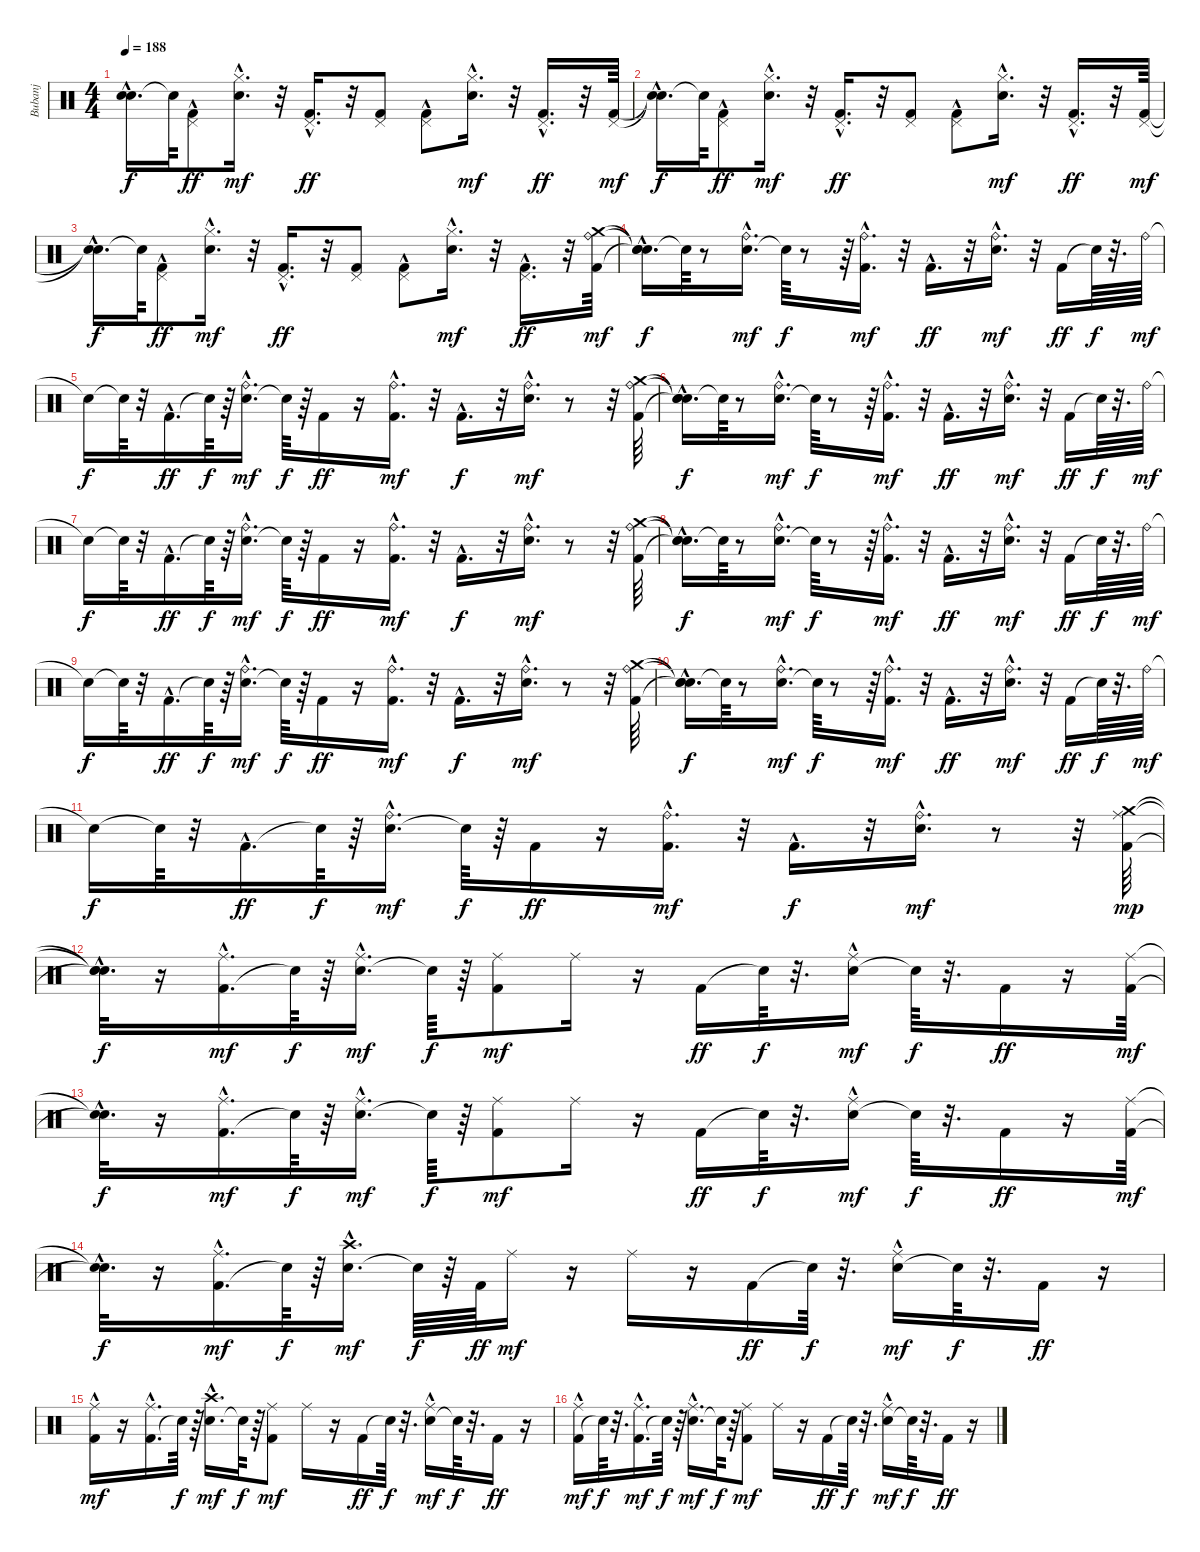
\track ("Bubanj" "Bubanj") {instrument percussion}
\staff {score}
\articulation defaults
\ts (4 4)
\tempo 188
\clef neutral
\ks c
("Snare (hit)"{hac t} "Snare (hit)"{hac t}).16{d dy f} "Snare (hit)"{t}.64 ("Pedal Hi-Hat (hit)"{hac} "Kick (hit) 2").8{dy ff} ("Electric Snare (hit)"{hac} "Hi-Hat (closed)").16{d dy mf} r.32 ("Pedal Hi-Hat (hit)"{hac} "Kick (hit) 2"{hac}).16{d dy ff} r.32 ("Pedal Hi-Hat (hit)" "Kick (hit) 2").8 ("Pedal Hi-Hat (hit)"{hac} "Kick (hit) 2").8 ("Electric Snare (hit)"{hac} "Hi-Hat (closed)").16{d dy mf} r.32 ("Pedal Hi-Hat (hit)" "Kick (hit) 2"{hac}).16{d dy ff} r.32 ("Kick (hit) 2" "Pedal Hi-Hat (hit)").64{dy mf} |
("Snare (hit)"{hac t} "Snare (hit)"{hac t}).16{d dy f} "Snare (hit)"{t}.64 ("Pedal Hi-Hat (hit)"{hac} "Kick (hit) 2").8{dy ff} ("Electric Snare (hit)"{hac} "Hi-Hat (closed)").16{d dy mf} r.32 ("Pedal Hi-Hat (hit)"{hac} "Kick (hit) 2"{hac}).16{d dy ff} r.32 ("Pedal Hi-Hat (hit)" "Kick (hit) 2").8 ("Pedal Hi-Hat (hit)"{hac} "Kick (hit) 2").8 ("Electric Snare (hit)"{hac} "Hi-Hat (closed)").16{d dy mf} r.32 ("Pedal Hi-Hat (hit)" "Kick (hit) 2"{hac}).16{d dy ff} r.32 ("Kick (hit) 2" "Pedal Hi-Hat (hit)").64{dy mf} |
("Snare (hit)"{hac t} "Snare (hit)"{hac t}).16{d dy f} "Snare (hit)"{t}.64 ("Pedal Hi-Hat (hit)"{hac} "Kick (hit) 2").8{dy ff} ("Electric Snare (hit)"{hac} "Hi-Hat (closed)").16{d dy mf} r.32 ("Pedal Hi-Hat (hit)"{hac} "Kick (hit) 2"{hac}).16{d dy ff} r.32 ("Pedal Hi-Hat (hit)" "Kick (hit) 2").8 ("Pedal Hi-Hat (hit)"{hac} "Kick (hit) 2").8 ("Electric Snare (hit)"{hac} "Hi-Hat (closed)").16{d dy mf} r.32 ("Pedal Hi-Hat (hit)" "Kick (hit) 2"{hac}).16{d dy ff} r.32 ("Kick (hit) 2" "Ride (bell)" "Crash medium (hit)").64{dy mf} |
("Snare (hit)"{hac t} "Snare (hit)"{t} "Snare (hit)"{t}).16{d dy f} "Snare (hit)"{t}.64 r.8 ("Electric Snare (hit)"{hac} "Ride (bell)"{hac}).16{d dy mf} "Snare (hit)"{t}.64{dy f} r.8 r.64 ("Kick (hit) 2" "Ride (bell)"{hac}).16{d dy mf} r.32 "Kick (hit) 2"{hac}.16{d dy ff} r.32 ("Electric Snare (hit)" "Ride (bell)"{hac}).16{d dy mf} r.32 "Kick (hit) 2".16{dy ff} "Snare (hit)"{t}.64{dy f} r.32{d} "Ride (bell)".64{dy mf} |
"Snare (hit)"{t}.16{dy f} "Snare (hit)"{t}.64 r.32 "Kick (hit) 2"{hac}.16{d dy ff} "Snare (hit)"{t}.64{dy f} r.64 ("Electric Snare (hit)"{hac} "Ride (bell)"{hac}).16{d dy mf} "Snare (hit)"{t}.64{dy f} r.64 "Kick (hit) 2".16{dy ff} r.16 ("Kick (hit) 2" "Ride (bell)"{hac}).16{d dy mf} r.32 "Kick (hit) 2"{hac}.16{d dy f} r.32 ("Electric Snare (hit)" "Ride (bell)"{hac}).16{d dy mf} r.8 r.32 ("Kick (hit) 2" "Ride (bell)" "Crash medium (hit)").64 |
("Snare (hit)"{hac t} "Snare (hit)"{t} "Snare (hit)"{t}).16{d dy f} "Snare (hit)"{t}.64 r.8 ("Electric Snare (hit)"{hac} "Ride (bell)"{hac}).16{d dy mf} "Snare (hit)"{t}.64{dy f} r.8 r.64 ("Kick (hit) 2" "Ride (bell)"{hac}).16{d dy mf} r.32 "Kick (hit) 2"{hac}.16{d dy ff} r.32 ("Electric Snare (hit)" "Ride (bell)"{hac}).16{d dy mf} r.32 "Kick (hit) 2".16{dy ff} "Snare (hit)"{t}.64{dy f} r.32{d} "Ride (bell)".64{dy mf} |
"Snare (hit)"{t}.16{dy f} "Snare (hit)"{t}.64 r.32 "Kick (hit) 2"{hac}.16{d dy ff} "Snare (hit)"{t}.64{dy f} r.64 ("Electric Snare (hit)"{hac} "Ride (bell)"{hac}).16{d dy mf} "Snare (hit)"{t}.64{dy f} r.64 "Kick (hit) 2".16{dy ff} r.16 ("Kick (hit) 2" "Ride (bell)"{hac}).16{d dy mf} r.32 "Kick (hit) 2"{hac}.16{d dy f} r.32 ("Electric Snare (hit)" "Ride (bell)"{hac}).16{d dy mf} r.8 r.32 ("Kick (hit) 2" "Ride (bell)" "Crash medium (hit)").64 |
("Snare (hit)"{hac t} "Snare (hit)"{t} "Snare (hit)"{t}).16{d dy f} "Snare (hit)"{t}.64 r.8 ("Electric Snare (hit)"{hac} "Ride (bell)"{hac}).16{d dy mf} "Snare (hit)"{t}.64{dy f} r.8 r.64 ("Kick (hit) 2" "Ride (bell)"{hac}).16{d dy mf} r.32 "Kick (hit) 2"{hac}.16{d dy ff} r.32 ("Electric Snare (hit)" "Ride (bell)"{hac}).16{d dy mf} r.32 "Kick (hit) 2".16{dy ff} "Snare (hit)"{t}.64{dy f} r.32{d} "Ride (bell)".64{dy mf} |
"Snare (hit)"{t}.16{dy f} "Snare (hit)"{t}.64 r.32 "Kick (hit) 2"{hac}.16{d dy ff} "Snare (hit)"{t}.64{dy f} r.64 ("Electric Snare (hit)"{hac} "Ride (bell)"{hac}).16{d dy mf} "Snare (hit)"{t}.64{dy f} r.64 "Kick (hit) 2".16{dy ff} r.16 ("Kick (hit) 2" "Ride (bell)"{hac}).16{d dy mf} r.32 "Kick (hit) 2"{hac}.16{d dy f} r.32 ("Electric Snare (hit)" "Ride (bell)"{hac}).16{d dy mf} r.8 r.32 ("Kick (hit) 2" "Ride (bell)" "Crash medium (hit)").64 |
("Snare (hit)"{hac t} "Snare (hit)"{t} "Snare (hit)"{t}).16{d dy f} "Snare (hit)"{t}.64 r.8 ("Electric Snare (hit)"{hac} "Ride (bell)"{hac}).16{d dy mf} "Snare (hit)"{t}.64{dy f} r.8 r.64 ("Kick (hit) 2" "Ride (bell)"{hac}).16{d dy mf} r.32 "Kick (hit) 2"{hac}.16{d dy ff} r.32 ("Electric Snare (hit)" "Ride (bell)"{hac}).16{d dy mf} r.32 "Kick (hit) 2".16{dy ff} "Snare (hit)"{t}.64{dy f} r.32{d} "Ride (bell)".64{dy mf} |
"Snare (hit)"{t}.16{dy f} "Snare (hit)"{t}.64 r.32 "Kick (hit) 2"{hac}.16{d dy ff} "Snare (hit)"{t}.64{dy f} r.64 ("Electric Snare (hit)"{hac} "Ride (bell)"{hac}).16{d dy mf} "Snare (hit)"{t}.64{dy f} r.64 "Kick (hit) 2".16{dy ff} r.16 ("Kick (hit) 2" "Ride (bell)"{hac}).16{d dy mf} r.32 "Kick (hit) 2"{hac}.16{d dy f} r.32 ("Electric Snare (hit)" "Ride (bell)"{hac}).16{d dy mf} r.8 r.32 ("Kick (hit) 2" "Ride (middle)" "Crash medium (hit)").64{dy mp} |
("Snare (hit)"{hac t} "Snare (hit)"{t} "Snare (hit)"{hac t}).32{d dy f} r.16 ("Kick (hit) 2"{hac} "Ride (middle)").16{d dy mf} "Snare (hit)"{t}.64{dy f} r.64 ("Electric Snare (hit)"{hac} "Ride (middle)").16{d dy mf} "Snare (hit)"{t}.64{dy f} r.64 ("Kick (hit) 2" "Ride (middle)").8{dy mf} "Ride (middle)".16 r.16 "Kick (hit) 2".16{dy ff} "Snare (hit)"{t}.64{dy f} r.32{d} ("Electric Snare (hit)" "Ride (middle)"{hac}).16{dy mf} "Snare (hit)"{t}.64{dy f} r.32{d} "Kick (hit) 2".16{dy ff} r.16 ("Kick (hit) 2" "Ride (middle)").64{dy mf} |
("Snare (hit)"{hac t} "Snare (hit)"{t}).32{d dy f} r.16 ("Kick (hit) 2"{hac} "Ride (middle)").16{d dy mf} "Snare (hit)"{t}.64{dy f} r.64 ("Electric Snare (hit)"{hac} "Ride (middle)").16{d dy mf} "Snare (hit)"{t}.64{dy f} r.64 ("Kick (hit) 2" "Ride (middle)").8{dy mf} "Ride (middle)".16 r.16 "Kick (hit) 2".16{dy ff} "Snare (hit)"{t}.64{dy f} r.32{d} ("Electric Snare (hit)" "Ride (middle)"{hac}).16{dy mf} "Snare (hit)"{t}.64{dy f} r.32{d} "Kick (hit) 2".16{dy ff} r.16 ("Kick (hit) 2" "Ride (middle)").64{dy mf} |
("Snare (hit)"{hac t} "Snare (hit)"{t}).32{d dy f} r.16 ("Kick (hit) 2"{hac} "Ride (middle)").16{d dy mf} "Snare (hit)"{t}.64{dy f} r.64 ("Electric Snare (hit)"{hac} "Crash high (hit)").16{d dy mf} "Snare (hit)"{t}.64{dy f} r.64 "Kick (hit) 2".64{dy ff} "Ride (middle)".16{dy mf} r.16 "Ride (middle)".16 r.16 "Kick (hit) 2".16{dy ff} "Snare (hit)"{t}.64{dy f} r.32{d} ("Electric Snare (hit)" "Ride (middle)"{hac}).16{dy mf} "Snare (hit)"{t}.64{dy f} r.32{d} "Kick (hit) 2".16{dy ff} r.16 |
("Kick (hit) 2" "Ride (middle)"{hac}).16{dy mf} r.16 ("Kick (hit) 2"{hac} "Ride (middle)").16{d} "Snare (hit)"{t}.64{dy f} r.64 ("Electric Snare (hit)"{hac} "Crash high (hit)").16{d dy mf} "Snare (hit)"{t}.64{dy f} r.64 ("Kick (hit) 2" "Ride (middle)").8{dy mf} "Ride (middle)".16 r.16 "Kick (hit) 2".16{dy ff} "Snare (hit)"{t}.64{dy f} r.32{d} ("Electric Snare (hit)" "Ride (middle)"{hac}).16{dy mf} "Snare (hit)"{t}.64{dy f} r.32{d} "Kick (hit) 2".16{dy ff} r.16 |
("Kick (hit) 2" "Ride (middle)"{hac}).16{dy mf} "Snare (hit)"{t}.64{dy f} r.32{d} ("Kick (hit) 2"{hac} "Ride (middle)").16{d dy mf} "Snare (hit)"{t}.64{dy f} r.64 ("Electric Snare (hit)"{hac} "Ride (middle)").16{d dy mf} "Snare (hit)"{t}.64{dy f} r.64 ("Kick (hit) 2" "Ride (middle)").8{dy mf} "Ride (middle)".16 r.16 "Kick (hit) 2".16{dy ff} "Snare (hit)"{t}.64{dy f} r.32{d} ("Electric Snare (hit)" "Ride (middle)"{hac}).16{dy mf} "Snare (hit)"{t}.64{dy f} r.32{d} "Kick (hit) 2".16{dy ff} r.16
